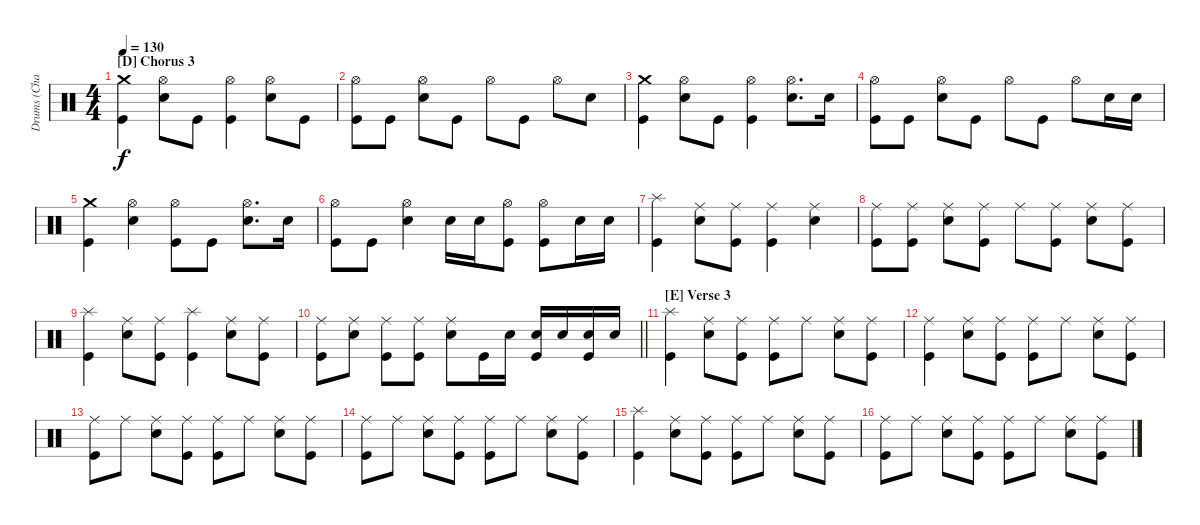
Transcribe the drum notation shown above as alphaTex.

\track ("Drums (Chad Channing)" "Drums (Cha") {instrument percussion}
\staff {score}
\articulation defaults
\ts (4 4)
\section ("" "[D] Chorus 3")
\tempo 130
\clef neutral
\ks c
("Crash medium (hit)" "Kick (hit)").4{dy f} ("Hi-Hat (open)" "Snare (hit) 2").8 "Kick (hit)".8 ("Hi-Hat (open)" "Kick (hit)").4 ("Hi-Hat (open)" "Snare (hit) 2").8 "Kick (hit)".8 |
("Hi-Hat (open)" "Kick (hit)").8 "Kick (hit)".8 ("Hi-Hat (open)" "Snare (hit) 2").8 "Kick (hit)".8 "Hi-Hat (open)".8 "Kick (hit)".8 "Hi-Hat (open)".8 "Snare (hit) 2".8 |
("Crash medium (hit)" "Kick (hit)").4 ("Hi-Hat (open)" "Snare (hit) 2").8 "Kick (hit)".8 ("Hi-Hat (open)" "Kick (hit)").4 ("Hi-Hat (open)" "Snare (hit) 2").8{d} "Snare (hit) 2".16 |
("Hi-Hat (open)" "Kick (hit)").8 "Kick (hit)".8 ("Hi-Hat (open)" "Snare (hit) 2").8 "Kick (hit)".8 "Hi-Hat (open)".8 "Kick (hit)".8 "Hi-Hat (open)".8 "Snare (hit) 2".16 "Snare (hit) 2".16 |
("Crash medium (hit)" "Kick (hit)").4 ("Hi-Hat (open)" "Snare (hit) 2").4 ("Hi-Hat (open)" "Kick (hit)").8 "Kick (hit)".8 ("Hi-Hat (open)" "Snare (hit) 2").8{d} "Snare (hit) 2".16 |
("Hi-Hat (open)" "Kick (hit)").8 "Kick (hit)".8 ("Hi-Hat (open)" "Snare (hit) 2").4 "Snare (hit) 2".16 "Snare (hit) 2".16 ("Hi-Hat (open)" "Kick (hit)").8 ("Hi-Hat (open)" "Kick (hit)").8 "Snare (hit) 2".16 "Snare (hit) 2".16 |
("Splash (hit)" "Kick (hit)").4 ("Ride (middle)" "Snare (hit) 2").8 ("Ride (middle)" "Kick (hit)").8 ("Ride (middle)" "Kick (hit)").4 ("Ride (middle)" "Snare (hit) 2").4 |
("Ride (middle)" "Kick (hit)").8 ("Ride (middle)" "Kick (hit)").8 ("Ride (middle)" "Snare (hit) 2").8 ("Ride (middle)" "Kick (hit)").8 "Ride (middle)".8 ("Ride (middle)" "Kick (hit)").8 ("Ride (middle)" "Snare (hit) 2").8 ("Ride (middle)" "Kick (hit)").8 |
("Splash (hit)" "Kick (hit)").4 ("Ride (middle)" "Snare (hit) 2").8 ("Ride (middle)" "Kick (hit)").8 ("Splash (hit)" "Kick (hit)").4 ("Ride (middle)" "Snare (hit) 2").8 ("Ride (middle)" "Kick (hit)").8 |
\barLineRight lightlight
("Ride (middle)" "Kick (hit)").8 ("Ride (middle)" "Snare (hit) 2").8 ("Ride (middle)" "Kick (hit)").8 ("Ride (middle)" "Kick (hit)").8 ("Ride (middle)" "Snare (hit) 2").8 "Kick (hit)".16 "Snare (hit) 2".16 ("Snare (hit) 2" "Kick (hit)").16 "Snare (hit) 2".16 ("Snare (hit) 2" "Kick (hit)").16 "Snare (hit) 2".16 |
\section ("" "[E] Verse 3")
("Splash (hit)" "Kick (hit)").4 ("Ride (middle)" "Snare (hit) 2").8 ("Ride (middle)" "Kick (hit)").8 ("Ride (middle)" "Kick (hit)").8 "Ride (middle)".8 ("Ride (middle)" "Snare (hit) 2").8 ("Ride (middle)" "Kick (hit)").8 |
("Ride (middle)" "Kick (hit)").4 ("Ride (middle)" "Snare (hit) 2").8 ("Ride (middle)" "Kick (hit)").8 ("Ride (middle)" "Kick (hit)").8 "Ride (middle)".8 ("Ride (middle)" "Snare (hit) 2").8 ("Ride (middle)" "Kick (hit)").8 |
("Ride (middle)" "Kick (hit)").8 "Ride (middle)".8 ("Ride (middle)" "Snare (hit) 2").8 ("Ride (middle)" "Kick (hit)").8 ("Ride (middle)" "Kick (hit)").8 "Ride (middle)".8 ("Ride (middle)" "Snare (hit) 2").8 ("Ride (middle)" "Kick (hit)").8 |
("Ride (middle)" "Kick (hit)").8 "Ride (middle)".8 ("Ride (middle)" "Snare (hit) 2").8 ("Ride (middle)" "Kick (hit)").8 ("Ride (middle)" "Kick (hit)").8 "Ride (middle)".8 ("Ride (middle)" "Snare (hit) 2").8 ("Ride (middle)" "Kick (hit)").8 |
("Splash (hit)" "Kick (hit)").4 ("Ride (middle)" "Snare (hit) 2").8 ("Ride (middle)" "Kick (hit)").8 ("Ride (middle)" "Kick (hit)").8 "Ride (middle)".8 ("Ride (middle)" "Snare (hit) 2").8 ("Ride (middle)" "Kick (hit)").8 |
("Ride (middle)" "Kick (hit)").8 "Ride (middle)".8 ("Ride (middle)" "Snare (hit) 2").8 ("Ride (middle)" "Kick (hit)").8 ("Ride (middle)" "Kick (hit)").8 "Ride (middle)".8 ("Ride (middle)" "Snare (hit) 2").8 ("Ride (middle)" "Kick (hit)").8
